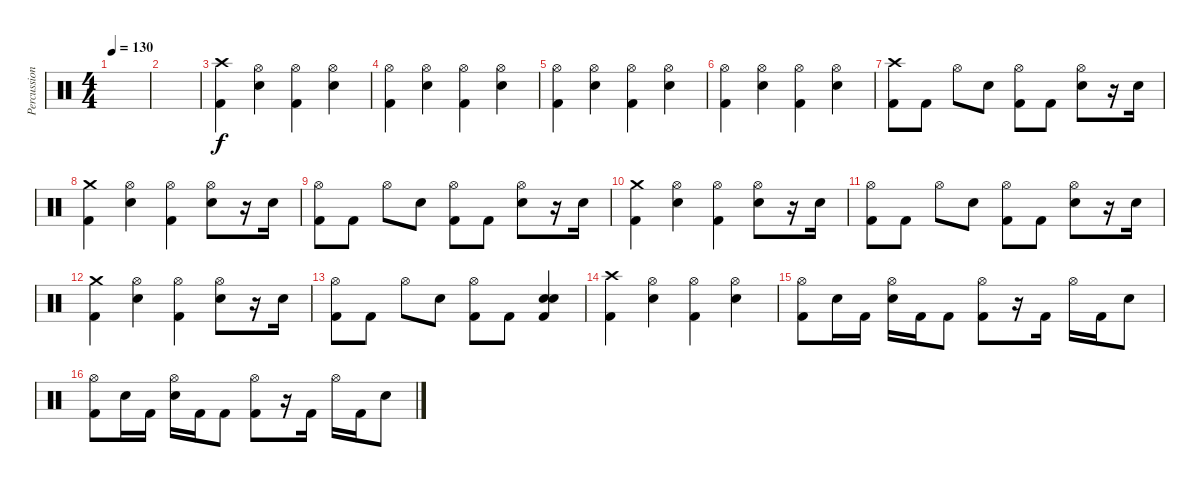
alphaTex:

\track ("Percussion" "Percussion") {instrument percussion}
\staff {score}
\articulation defaults
\ts (4 4)
\tempo 130
\clef neutral
\ks c
|
|
("Crash high (hit)" "Kick (hit) 2").4 ("Hi-Hat (open)" "Electric Snare (hit)").4 ("Hi-Hat (open)" "Kick (hit) 2").4 ("Hi-Hat (open)" "Electric Snare (hit)").4 |
("Hi-Hat (open)" "Kick (hit) 2").4 ("Hi-Hat (open)" "Electric Snare (hit)").4 ("Hi-Hat (open)" "Kick (hit) 2").4 ("Hi-Hat (open)" "Electric Snare (hit)").4 |
("Hi-Hat (open)" "Kick (hit) 2").4 ("Hi-Hat (open)" "Electric Snare (hit)").4 ("Hi-Hat (open)" "Kick (hit) 2").4 ("Hi-Hat (open)" "Electric Snare (hit)").4 |
("Hi-Hat (open)" "Kick (hit) 2").4 ("Hi-Hat (open)" "Electric Snare (hit)").4 ("Hi-Hat (open)" "Kick (hit) 2").4 ("Hi-Hat (open)" "Electric Snare (hit)").4 |
("Crash high (hit)" "Kick (hit) 2").8 "Kick (hit) 2".8 "Hi-Hat (open)".8 "Electric Snare (hit)".8 ("Hi-Hat (open)" "Kick (hit) 2").8 "Kick (hit) 2".8 ("Hi-Hat (open)" "Electric Snare (hit)").8 r.16 "Electric Snare (hit)".16 |
("Crash medium (hit)" "Kick (hit) 2").4 ("Hi-Hat (open)" "Electric Snare (hit)").4 ("Hi-Hat (open)" "Kick (hit) 2").4 ("Hi-Hat (open)" "Electric Snare (hit)").8 r.16 "Electric Snare (hit)".16 |
("Hi-Hat (open)" "Kick (hit) 2").8 "Kick (hit) 2".8 "Hi-Hat (open)".8 "Electric Snare (hit)".8 ("Hi-Hat (open)" "Kick (hit) 2").8 "Kick (hit) 2".8 ("Hi-Hat (open)" "Electric Snare (hit)").8 r.16 "Electric Snare (hit)".16 |
("Crash medium (hit)" "Kick (hit) 2").4 ("Hi-Hat (open)" "Electric Snare (hit)").4 ("Hi-Hat (open)" "Kick (hit) 2").4 ("Hi-Hat (open)" "Electric Snare (hit)").8 r.16 "Electric Snare (hit)".16 |
("Hi-Hat (open)" "Kick (hit) 2").8 "Kick (hit) 2".8 "Hi-Hat (open)".8 "Electric Snare (hit)".8 ("Hi-Hat (open)" "Kick (hit) 2").8 "Kick (hit) 2".8 ("Hi-Hat (open)" "Electric Snare (hit)").8 r.16 "Electric Snare (hit)".16 |
("Crash medium (hit)" "Kick (hit) 2").4 ("Hi-Hat (open)" "Electric Snare (hit)").4 ("Hi-Hat (open)" "Kick (hit) 2").4 ("Hi-Hat (open)" "Electric Snare (hit)").8 r.16 "Electric Snare (hit)".16 |
("Hi-Hat (open)" "Kick (hit) 2").8 "Kick (hit) 2".8 "Hi-Hat (open)".8 "Electric Snare (hit)".8 ("Hi-Hat (open)" "Kick (hit) 2").8 "Kick (hit) 2".8 ("Electric Snare (hit)" "Electric Snare (hit)" "Kick (hit) 2").4 |
("Crash high (hit)" "Kick (hit) 2").4 ("Hi-Hat (open)" "Electric Snare (hit)").4 ("Hi-Hat (open)" "Kick (hit) 2").4 ("Hi-Hat (open)" "Electric Snare (hit)").4 |
("Hi-Hat (open)" "Kick (hit) 2").8 "Electric Snare (hit)".16 "Kick (hit) 2".16 ("Hi-Hat (open)" "Electric Snare (hit)").16 "Kick (hit) 2".16 "Kick (hit) 2".8 ("Hi-Hat (open)" "Kick (hit) 2").8 r.16 "Kick (hit) 2".16 "Hi-Hat (open)".16 "Kick (hit) 2".16 "Electric Snare (hit)".8 |
("Hi-Hat (open)" "Kick (hit) 2").8 "Electric Snare (hit)".16 "Kick (hit) 2".16 ("Hi-Hat (open)" "Electric Snare (hit)").16 "Kick (hit) 2".16 "Kick (hit) 2".8 ("Hi-Hat (open)" "Kick (hit) 2").8 r.16 "Kick (hit) 2".16 "Hi-Hat (open)".16 "Kick (hit) 2".16 "Electric Snare (hit)".8
